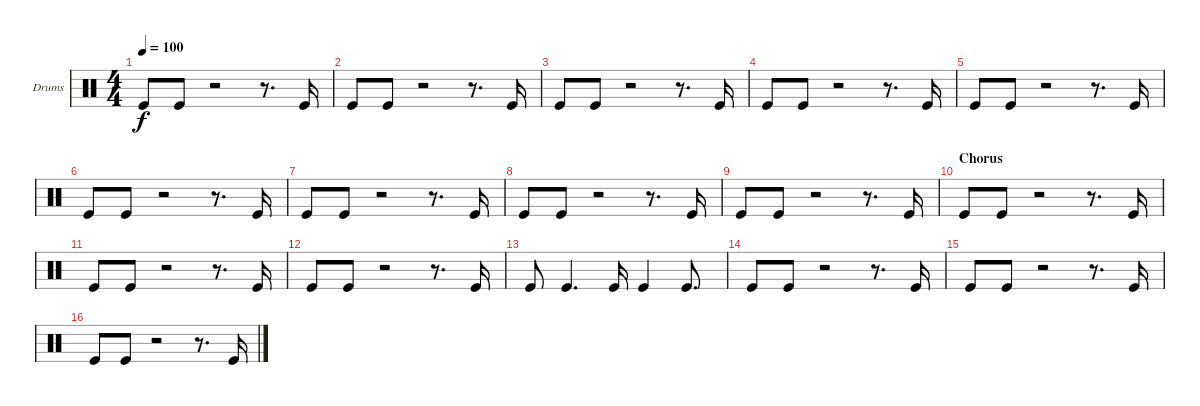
\bracketExtendMode groupsimilarinstruments
\firstSystemTrackNameOrientation horizontal
\otherSystemsTrackNameOrientation horizontal
\track ("Drums overdubbed" "Drums") {instrument percussion}
\staff {score}
\articulation defaults
\ts (4 4)
\tempo 100
\clef neutral
\ks c "Kick (hit)".8{dy f} "Kick (hit)".8
r.2 r.8{d} "Kick (hit)".16 |
"Kick (hit)".8 "Kick (hit)".8 r.2 r.8{d} "Kick (hit)".16 |
"Kick (hit)".8 "Kick (hit)".8 r.2 r.8{d} "Kick (hit)".16 |
"Kick (hit)".8 "Kick (hit)".8 r.2 r.8{d} "Kick (hit)".16 |
"Kick (hit)".8 "Kick (hit)".8 r.2 r.8{d} "Kick (hit)".16 |
"Kick (hit)".8 "Kick (hit)".8 r.2 r.8{d} "Kick (hit)".16 |
"Kick (hit)".8 "Kick (hit)".8 r.2 r.8{d} "Kick (hit)".16 |
"Kick (hit)".8 "Kick (hit)".8 r.2 r.8{d} "Kick (hit)".16 |
"Kick (hit)".8 "Kick (hit)".8 r.2 r.8{d} "Kick (hit)".16 |
\section ("" "Chorus")
"Kick (hit)".8 "Kick (hit)".8 r.2 r.8{d} "Kick (hit)".16 |
"Kick (hit)".8 "Kick (hit)".8 r.2 r.8{d} "Kick (hit)".16 |
"Kick (hit)".8 "Kick (hit)".8 r.2 r.8{d} "Kick (hit)".16 |
"Kick (hit)".8 "Kick (hit)".4{d} "Kick (hit)".16 "Kick (hit)".4 "Kick (hit)".8{d} |
"Kick (hit)".8 "Kick (hit)".8 r.2 r.8{d} "Kick (hit)".16 |
"Kick (hit)".8 "Kick (hit)".8 r.2 r.8{d} "Kick (hit)".16 |
"Kick (hit)".8 "Kick (hit)".8 r.2 r.8{d} "Kick (hit)".16
